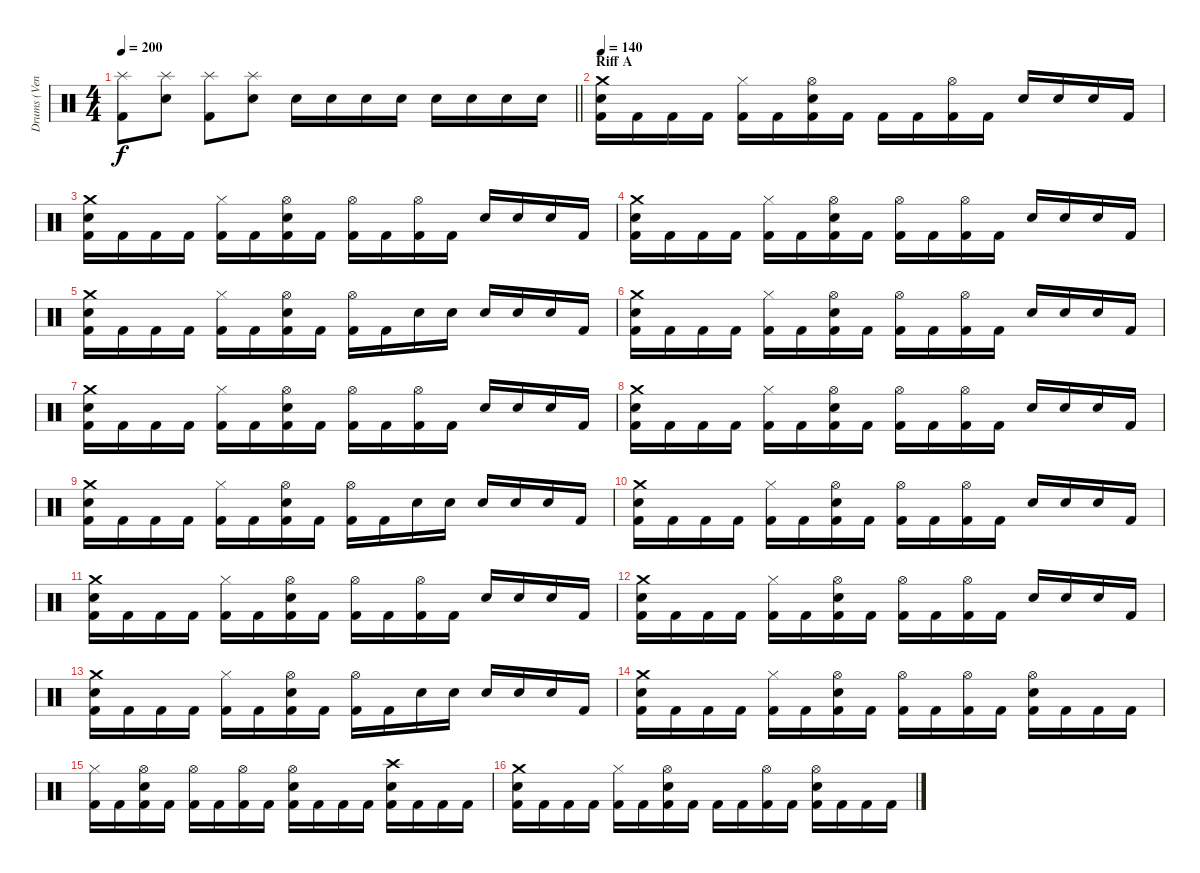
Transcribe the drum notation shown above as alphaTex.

\track ("Drums (Ventor)" "Drums (Ven") {instrument percussion}
\staff {score}
\articulation defaults
\ts (4 4)
\tempo 200
\clef neutral
\barLineRight lightlight
\ks c
("Splash (hit)" "Kick (hit) 2").8{dy f} ("Electric Snare (hit)" "Splash (hit)").8 ("Splash (hit)" "Kick (hit) 2").8 ("Electric Snare (hit)" "Splash (hit)").8 "Electric Snare (hit)".16 "Electric Snare (hit)".16 "Electric Snare (hit)".16 "Electric Snare (hit)".16 "Electric Snare (hit)".16 "Electric Snare (hit)".16 "Electric Snare (hit)".16 "Electric Snare (hit)".16 |
\section ("" "Riff A")
\tempo 140
("Electric Snare (hit)" "Crash medium (hit)" "Kick (hit) 2").16 "Kick (hit) 2".16 "Kick (hit) 2".16 "Kick (hit) 2".16 ("Hi-Hat (closed)" "Kick (hit) 2").16 "Kick (hit) 2".16 ("Electric Snare (hit)" "Hi-Hat (open)" "Kick (hit) 2").16 "Kick (hit) 2".16 "Kick (hit) 2".16 "Kick (hit) 2".16 ("Hi-Hat (open)" "Kick (hit) 2").16 "Kick (hit) 2".16 "Electric Snare (hit)".16 "Electric Snare (hit)".16 "Electric Snare (hit)".16 "Kick (hit) 2".16 |
("Electric Snare (hit)" "Crash medium (hit)" "Kick (hit) 2").16 "Kick (hit) 2".16 "Kick (hit) 2".16 "Kick (hit) 2".16 ("Hi-Hat (closed)" "Kick (hit) 2").16 "Kick (hit) 2".16 ("Electric Snare (hit)" "Hi-Hat (open)" "Kick (hit) 2").16 "Kick (hit) 2".16 ("Hi-Hat (open)" "Kick (hit) 2").16 "Kick (hit) 2".16 ("Hi-Hat (open)" "Kick (hit) 2").16 "Kick (hit) 2".16 "Electric Snare (hit)".16 "Electric Snare (hit)".16 "Electric Snare (hit)".16 "Kick (hit) 2".16 |
("Electric Snare (hit)" "Crash medium (hit)" "Kick (hit) 2").16 "Kick (hit) 2".16 "Kick (hit) 2".16 "Kick (hit) 2".16 ("Hi-Hat (closed)" "Kick (hit) 2").16 "Kick (hit) 2".16 ("Electric Snare (hit)" "Hi-Hat (open)" "Kick (hit) 2").16 "Kick (hit) 2".16 ("Hi-Hat (open)" "Kick (hit) 2").16 "Kick (hit) 2".16 ("Hi-Hat (open)" "Kick (hit) 2").16 "Kick (hit) 2".16 "Electric Snare (hit)".16 "Electric Snare (hit)".16 "Electric Snare (hit)".16 "Kick (hit) 2".16 |
("Electric Snare (hit)" "Crash medium (hit)" "Kick (hit) 2").16 "Kick (hit) 2".16 "Kick (hit) 2".16 "Kick (hit) 2".16 ("Hi-Hat (closed)" "Kick (hit) 2").16 "Kick (hit) 2".16 ("Electric Snare (hit)" "Hi-Hat (open)" "Kick (hit) 2").16 "Kick (hit) 2".16 ("Hi-Hat (open)" "Kick (hit) 2").16 "Kick (hit) 2".16 "Electric Snare (hit)".16 "Electric Snare (hit)".16 "Electric Snare (hit)".16 "Electric Snare (hit)".16 "Electric Snare (hit)".16 "Kick (hit) 2".16 |
("Electric Snare (hit)" "Crash medium (hit)" "Kick (hit) 2").16 "Kick (hit) 2".16 "Kick (hit) 2".16 "Kick (hit) 2".16 ("Hi-Hat (closed)" "Kick (hit) 2").16 "Kick (hit) 2".16 ("Electric Snare (hit)" "Hi-Hat (open)" "Kick (hit) 2").16 "Kick (hit) 2".16 ("Hi-Hat (open)" "Kick (hit) 2").16 "Kick (hit) 2".16 ("Hi-Hat (open)" "Kick (hit) 2").16 "Kick (hit) 2".16 "Electric Snare (hit)".16 "Electric Snare (hit)".16 "Electric Snare (hit)".16 "Kick (hit) 2".16 |
("Electric Snare (hit)" "Crash medium (hit)" "Kick (hit) 2").16 "Kick (hit) 2".16 "Kick (hit) 2".16 "Kick (hit) 2".16 ("Hi-Hat (closed)" "Kick (hit) 2").16 "Kick (hit) 2".16 ("Electric Snare (hit)" "Hi-Hat (open)" "Kick (hit) 2").16 "Kick (hit) 2".16 ("Hi-Hat (open)" "Kick (hit) 2").16 "Kick (hit) 2".16 ("Hi-Hat (open)" "Kick (hit) 2").16 "Kick (hit) 2".16 "Electric Snare (hit)".16 "Electric Snare (hit)".16 "Electric Snare (hit)".16 "Kick (hit) 2".16 |
("Electric Snare (hit)" "Crash medium (hit)" "Kick (hit) 2").16 "Kick (hit) 2".16 "Kick (hit) 2".16 "Kick (hit) 2".16 ("Hi-Hat (closed)" "Kick (hit) 2").16 "Kick (hit) 2".16 ("Electric Snare (hit)" "Hi-Hat (open)" "Kick (hit) 2").16 "Kick (hit) 2".16 ("Hi-Hat (open)" "Kick (hit) 2").16 "Kick (hit) 2".16 ("Hi-Hat (open)" "Kick (hit) 2").16 "Kick (hit) 2".16 "Electric Snare (hit)".16 "Electric Snare (hit)".16 "Electric Snare (hit)".16 "Kick (hit) 2".16 |
("Electric Snare (hit)" "Crash medium (hit)" "Kick (hit) 2").16 "Kick (hit) 2".16 "Kick (hit) 2".16 "Kick (hit) 2".16 ("Hi-Hat (closed)" "Kick (hit) 2").16 "Kick (hit) 2".16 ("Electric Snare (hit)" "Hi-Hat (open)" "Kick (hit) 2").16 "Kick (hit) 2".16 ("Hi-Hat (open)" "Kick (hit) 2").16 "Kick (hit) 2".16 "Electric Snare (hit)".16 "Electric Snare (hit)".16 "Electric Snare (hit)".16 "Electric Snare (hit)".16 "Electric Snare (hit)".16 "Kick (hit) 2".16 |
("Electric Snare (hit)" "Crash medium (hit)" "Kick (hit) 2").16 "Kick (hit) 2".16 "Kick (hit) 2".16 "Kick (hit) 2".16 ("Hi-Hat (closed)" "Kick (hit) 2").16 "Kick (hit) 2".16 ("Electric Snare (hit)" "Hi-Hat (open)" "Kick (hit) 2").16 "Kick (hit) 2".16 ("Hi-Hat (open)" "Kick (hit) 2").16 "Kick (hit) 2".16 ("Hi-Hat (open)" "Kick (hit) 2").16 "Kick (hit) 2".16 "Electric Snare (hit)".16 "Electric Snare (hit)".16 "Electric Snare (hit)".16 "Kick (hit) 2".16 |
("Electric Snare (hit)" "Crash medium (hit)" "Kick (hit) 2").16 "Kick (hit) 2".16 "Kick (hit) 2".16 "Kick (hit) 2".16 ("Hi-Hat (closed)" "Kick (hit) 2").16 "Kick (hit) 2".16 ("Electric Snare (hit)" "Hi-Hat (open)" "Kick (hit) 2").16 "Kick (hit) 2".16 ("Hi-Hat (open)" "Kick (hit) 2").16 "Kick (hit) 2".16 ("Hi-Hat (open)" "Kick (hit) 2").16 "Kick (hit) 2".16 "Electric Snare (hit)".16 "Electric Snare (hit)".16 "Electric Snare (hit)".16 "Kick (hit) 2".16 |
("Electric Snare (hit)" "Crash medium (hit)" "Kick (hit) 2").16 "Kick (hit) 2".16 "Kick (hit) 2".16 "Kick (hit) 2".16 ("Hi-Hat (closed)" "Kick (hit) 2").16 "Kick (hit) 2".16 ("Electric Snare (hit)" "Hi-Hat (open)" "Kick (hit) 2").16 "Kick (hit) 2".16 ("Hi-Hat (open)" "Kick (hit) 2").16 "Kick (hit) 2".16 ("Hi-Hat (open)" "Kick (hit) 2").16 "Kick (hit) 2".16 "Electric Snare (hit)".16 "Electric Snare (hit)".16 "Electric Snare (hit)".16 "Kick (hit) 2".16 |
("Electric Snare (hit)" "Crash medium (hit)" "Kick (hit) 2").16 "Kick (hit) 2".16 "Kick (hit) 2".16 "Kick (hit) 2".16 ("Hi-Hat (closed)" "Kick (hit) 2").16 "Kick (hit) 2".16 ("Electric Snare (hit)" "Hi-Hat (open)" "Kick (hit) 2").16 "Kick (hit) 2".16 ("Hi-Hat (open)" "Kick (hit) 2").16 "Kick (hit) 2".16 "Electric Snare (hit)".16 "Electric Snare (hit)".16 "Electric Snare (hit)".16 "Electric Snare (hit)".16 "Electric Snare (hit)".16 "Kick (hit) 2".16 |
("Electric Snare (hit)" "Crash medium (hit)" "Kick (hit) 2").16 "Kick (hit) 2".16 "Kick (hit) 2".16 "Kick (hit) 2".16 ("Hi-Hat (closed)" "Kick (hit) 2").16 "Kick (hit) 2".16 ("Electric Snare (hit)" "Hi-Hat (open)" "Kick (hit) 2").16 "Kick (hit) 2".16 ("Hi-Hat (open)" "Kick (hit) 2").16 "Kick (hit) 2".16 ("Hi-Hat (open)" "Kick (hit) 2").16 "Kick (hit) 2".16 ("Electric Snare (hit)" "Hi-Hat (open)" "Kick (hit) 2").16 "Kick (hit) 2".16 "Kick (hit) 2".16 "Kick (hit) 2".16 |
("Hi-Hat (closed)" "Kick (hit) 2").16 "Kick (hit) 2".16 ("Electric Snare (hit)" "Hi-Hat (open)" "Kick (hit) 2").16 "Kick (hit) 2".16 ("Hi-Hat (open)" "Kick (hit) 2").16 "Kick (hit) 2".16 ("Hi-Hat (open)" "Kick (hit) 2").16 "Kick (hit) 2".16 ("Electric Snare (hit)" "Hi-Hat (open)" "Kick (hit) 2").16 "Kick (hit) 2".16 "Kick (hit) 2".16 "Kick (hit) 2".16 ("Electric Snare (hit)" "Crash high (hit)" "Kick (hit) 2").16 "Kick (hit) 2".16 "Kick (hit) 2".16 "Kick (hit) 2".16 |
("Electric Snare (hit)" "Crash medium (hit)" "Kick (hit) 2").16 "Kick (hit) 2".16 "Kick (hit) 2".16 "Kick (hit) 2".16 ("Hi-Hat (closed)" "Kick (hit) 2").16 "Kick (hit) 2".16 ("Electric Snare (hit)" "Hi-Hat (open)" "Kick (hit) 2").16 "Kick (hit) 2".16 "Kick (hit) 2".16 "Kick (hit) 2".16 ("Hi-Hat (open)" "Kick (hit) 2").16 "Kick (hit) 2".16 ("Electric Snare (hit)" "Hi-Hat (open)" "Kick (hit) 2").16 "Kick (hit) 2".16 "Kick (hit) 2".16 "Kick (hit) 2".16
